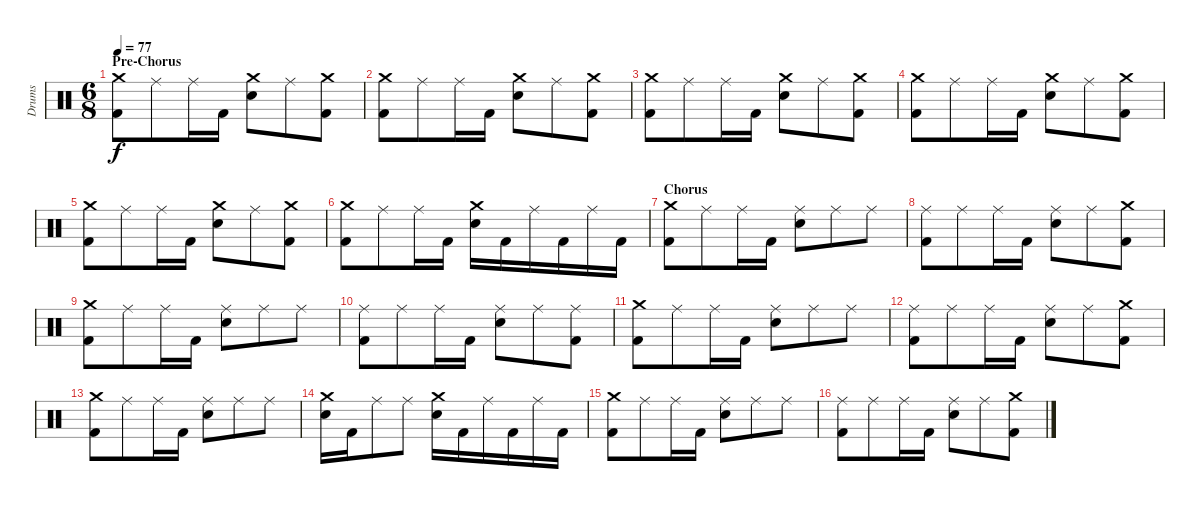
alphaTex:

\track ("Drums" "Drums") {instrument percussion}
\staff {score}
\articulation defaults
\ts (6 8)
\section ("" "Pre-Chorus")
\tempo 77
\clef neutral
\ks c
("Crash medium (hit)" "Kick (hit) 2").8{dy f} "Ride (middle)".8 "Ride (middle)".16 "Kick (hit) 2".16 ("Crash medium (hit)" "Snare (hit) 2").8 "Ride (middle)".8 ("Crash medium (hit)" "Kick (hit) 2").8 |
("Crash medium (hit)" "Kick (hit) 2").8 "Ride (middle)".8 "Ride (middle)".16 "Kick (hit) 2".16 ("Crash medium (hit)" "Snare (hit) 2").8 "Ride (middle)".8 ("Crash medium (hit)" "Kick (hit) 2").8 |
("Crash medium (hit)" "Kick (hit) 2").8 "Ride (middle)".8 "Ride (middle)".16 "Kick (hit) 2".16 ("Crash medium (hit)" "Snare (hit) 2").8 "Ride (middle)".8 ("Crash medium (hit)" "Kick (hit) 2").8 |
("Crash medium (hit)" "Kick (hit) 2").8 "Ride (middle)".8 "Ride (middle)".16 "Kick (hit) 2".16 ("Crash medium (hit)" "Snare (hit) 2").8 "Ride (middle)".8 ("Crash medium (hit)" "Kick (hit) 2").8 |
("Crash medium (hit)" "Kick (hit) 2").8 "Ride (middle)".8 "Ride (middle)".16 "Kick (hit) 2".16 ("Crash medium (hit)" "Snare (hit) 2").8 "Ride (middle)".8 ("Crash medium (hit)" "Kick (hit) 2").8 |
("Crash medium (hit)" "Kick (hit) 2").8 "Ride (middle)".8 "Ride (middle)".16 "Kick (hit) 2".16 ("Crash medium (hit)" "Snare (hit) 2").16 "Kick (hit) 2".16 "Ride (middle)".16 "Kick (hit) 2".16 "Ride (middle)".16 "Kick (hit) 2".16 |
\section ("" "Chorus")
("Crash medium (hit)" "Kick (hit) 2").8 "Ride (middle)".8 "Ride (middle)".16 "Kick (hit) 2".16 ("Ride (middle)" "Snare (hit) 2").8 "Ride (middle)".8 "Ride (middle)".8 |
("Ride (middle)" "Kick (hit) 2").8 "Ride (middle)".8 "Ride (middle)".16 "Kick (hit) 2".16 ("Ride (middle)" "Snare (hit) 2").8 "Ride (middle)".8 ("Crash medium (hit)" "Kick (hit) 2").8 |
("Crash medium (hit)" "Kick (hit) 2").8 "Ride (middle)".8 "Ride (middle)".16 "Kick (hit) 2".16 ("Ride (middle)" "Snare (hit) 2").8 "Ride (middle)".8 "Ride (middle)".8 |
("Ride (middle)" "Kick (hit) 2").8 "Ride (middle)".8 "Ride (middle)".16 "Kick (hit) 2".16 ("Ride (middle)" "Snare (hit) 2").8 "Ride (middle)".8 ("Ride (middle)" "Kick (hit) 2").8 |
("Crash medium (hit)" "Kick (hit) 2").8 "Ride (middle)".8 "Ride (middle)".16 "Kick (hit) 2".16 ("Ride (middle)" "Snare (hit) 2").8 "Ride (middle)".8 "Ride (middle)".8 |
("Ride (middle)" "Kick (hit) 2").8 "Ride (middle)".8 "Ride (middle)".16 "Kick (hit) 2".16 ("Ride (middle)" "Snare (hit) 2").8 "Ride (middle)".8 ("Crash medium (hit)" "Kick (hit) 2").8 |
("Crash medium (hit)" "Kick (hit) 2").8 "Ride (middle)".8 "Ride (middle)".16 "Kick (hit) 2".16 ("Ride (middle)" "Snare (hit) 2").8 "Ride (middle)".8 "Ride (middle)".8 |
("Crash medium (hit)" "Snare (hit) 2").16 "Kick (hit) 2".16 "Ride (middle)".8 "Ride (middle)".8 ("Crash medium (hit)" "Snare (hit) 2").16 "Kick (hit) 2".16 "Ride (middle)".16 "Kick (hit) 2".16 "Ride (middle)".16 "Kick (hit) 2".16 |
("Crash medium (hit)" "Kick (hit) 2").8 "Ride (middle)".8 "Ride (middle)".16 "Kick (hit) 2".16 ("Ride (middle)" "Snare (hit) 2").8 "Ride (middle)".8 "Ride (middle)".8 |
("Ride (middle)" "Kick (hit) 2").8 "Ride (middle)".8 "Ride (middle)".16 "Kick (hit) 2".16 ("Ride (middle)" "Snare (hit) 2").8 "Ride (middle)".8 ("Crash medium (hit)" "Kick (hit) 2").8
